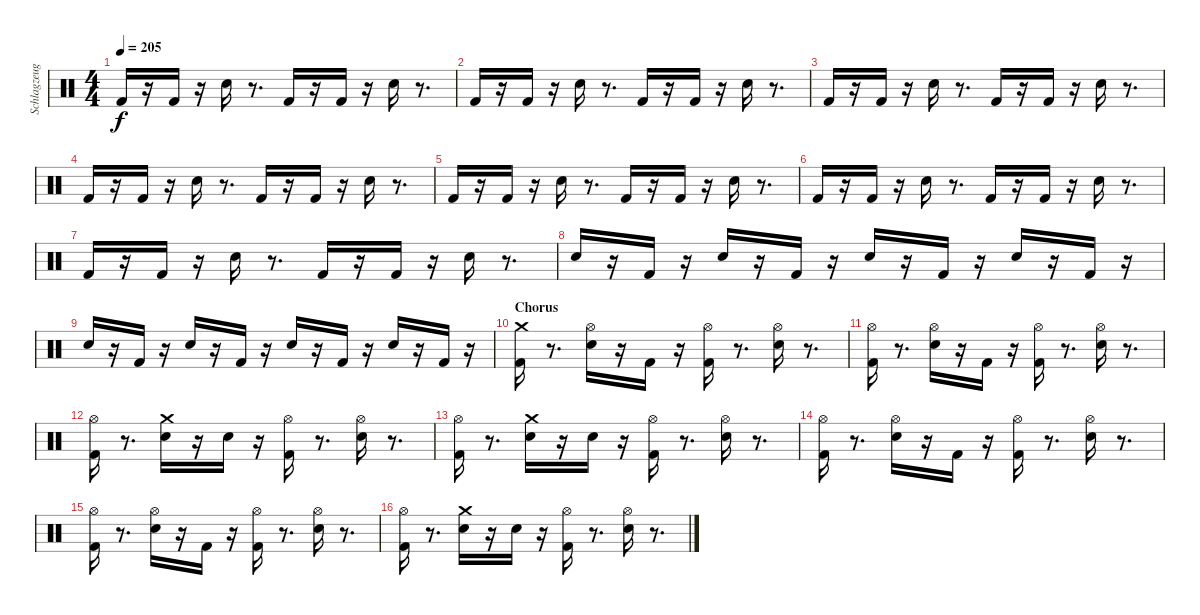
\track ("Schlagzeug - Bela B." "Schlagzeug") {instrument percussion}
\staff {score}
\articulation defaults
\ts (4 4)
\tempo 205
\clef neutral
\ks c "Kick (hit) 2".16{dy f}
r.16 "Kick (hit) 2".16 r.16 "Electric Snare (hit)".16 r.8{d} "Kick (hit) 2".16 r.16 "Kick (hit) 2".16 r.16 "Electric Snare (hit)".16 r.8{d} |
"Kick (hit) 2".16 r.16 "Kick (hit) 2".16 r.16 "Electric Snare (hit)".16 r.8{d} "Kick (hit) 2".16 r.16 "Kick (hit) 2".16 r.16 "Electric Snare (hit)".16 r.8{d} |
"Kick (hit) 2".16 r.16 "Kick (hit) 2".16 r.16 "Electric Snare (hit)".16 r.8{d} "Kick (hit) 2".16 r.16 "Kick (hit) 2".16 r.16 "Electric Snare (hit)".16 r.8{d} |
"Kick (hit) 2".16 r.16 "Kick (hit) 2".16 r.16 "Electric Snare (hit)".16 r.8{d} "Kick (hit) 2".16 r.16 "Kick (hit) 2".16 r.16 "Electric Snare (hit)".16 r.8{d} |
"Kick (hit) 2".16 r.16 "Kick (hit) 2".16 r.16 "Electric Snare (hit)".16 r.8{d} "Kick (hit) 2".16 r.16 "Kick (hit) 2".16 r.16 "Electric Snare (hit)".16 r.8{d} |
"Kick (hit) 2".16 r.16 "Kick (hit) 2".16 r.16 "Electric Snare (hit)".16 r.8{d} "Kick (hit) 2".16 r.16 "Kick (hit) 2".16 r.16 "Electric Snare (hit)".16 r.8{d} |
"Kick (hit) 2".16 r.16 "Kick (hit) 2".16 r.16 "Electric Snare (hit)".16 r.8{d} "Kick (hit) 2".16 r.16 "Kick (hit) 2".16 r.16 "Electric Snare (hit)".16 r.8{d} |
"Electric Snare (hit)".16 r.16 "Kick (hit) 2".16 r.16 "Electric Snare (hit)".16 r.16 "Kick (hit) 2".16 r.16 "Electric Snare (hit)".16 r.16 "Kick (hit) 2".16 r.16 "Electric Snare (hit)".16 r.16 "Kick (hit) 2".16 r.16 |
"Electric Snare (hit)".16 r.16 "Kick (hit) 2".16 r.16 "Electric Snare (hit)".16 r.16 "Kick (hit) 2".16 r.16 "Electric Snare (hit)".16 r.16 "Kick (hit) 2".16 r.16 "Electric Snare (hit)".16 r.16 "Kick (hit) 2".16 r.16 |
\section ("" "Chorus")
("Kick (hit) 2" "Crash medium (hit)").16 r.8{d} ("Electric Snare (hit)" "Hi-Hat (open)").16 r.16 "Kick (hit) 2".16 r.16 ("Kick (hit) 2" "Hi-Hat (open)").16 r.8{d} ("Electric Snare (hit)" "Hi-Hat (open)").16 r.8{d} |
("Kick (hit) 2" "Hi-Hat (open)").16 r.8{d} ("Electric Snare (hit)" "Hi-Hat (open)").16 r.16 "Kick (hit) 2".16 r.16 ("Kick (hit) 2" "Hi-Hat (open)").16 r.8{d} ("Electric Snare (hit)" "Hi-Hat (open)").16 r.8{d} |
("Kick (hit) 2" "Hi-Hat (open)").16 r.8{d} ("Electric Snare (hit)" "Crash medium (hit)").16 r.16 "Electric Snare (hit)".16 r.16 ("Kick (hit) 2" "Hi-Hat (open)").16 r.8{d} ("Electric Snare (hit)" "Hi-Hat (open)").16 r.8{d} |
("Kick (hit) 2" "Hi-Hat (open)").16 r.8{d} ("Electric Snare (hit)" "Crash medium (hit)").16 r.16 "Electric Snare (hit)".16 r.16 ("Kick (hit) 2" "Hi-Hat (open)").16 r.8{d} ("Electric Snare (hit)" "Hi-Hat (open)").16 r.8{d} |
("Kick (hit) 2" "Hi-Hat (open)").16 r.8{d} ("Electric Snare (hit)" "Hi-Hat (open)").16 r.16 "Kick (hit) 2".16 r.16 ("Kick (hit) 2" "Hi-Hat (open)").16 r.8{d} ("Electric Snare (hit)" "Hi-Hat (open)").16 r.8{d} |
("Kick (hit) 2" "Hi-Hat (open)").16 r.8{d} ("Electric Snare (hit)" "Hi-Hat (open)").16 r.16 "Kick (hit) 2".16 r.16 ("Kick (hit) 2" "Hi-Hat (open)").16 r.8{d} ("Electric Snare (hit)" "Hi-Hat (open)").16 r.8{d} |
("Kick (hit) 2" "Hi-Hat (open)").16 r.8{d} ("Electric Snare (hit)" "Crash medium (hit)").16 r.16 "Electric Snare (hit)".16 r.16 ("Kick (hit) 2" "Hi-Hat (open)").16 r.8{d} ("Electric Snare (hit)" "Hi-Hat (open)").16 r.8{d}
